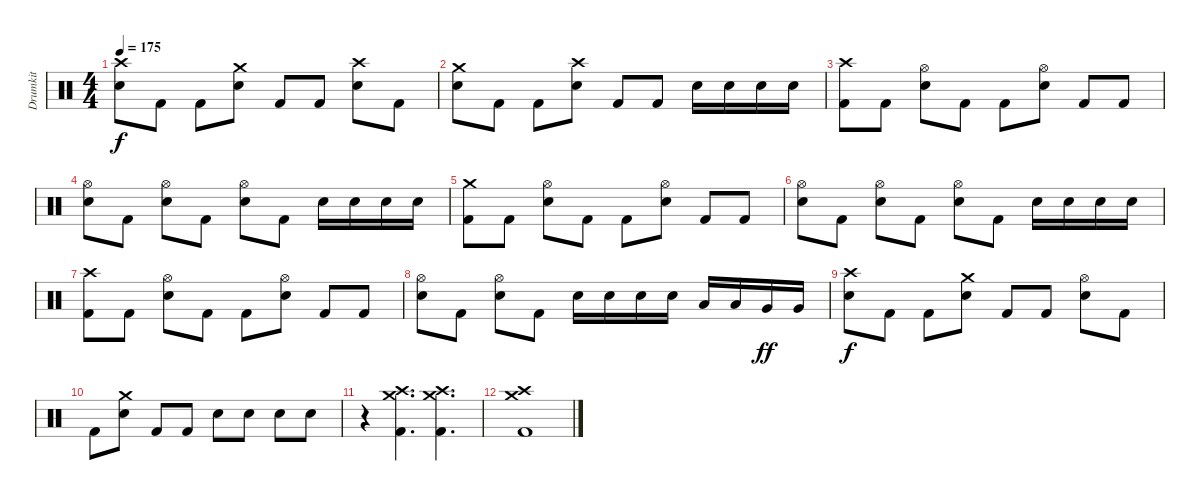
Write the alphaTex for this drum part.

\track ("Drumkit" "Drumkit") {instrument percussion}
\staff {score}
\articulation defaults
\ts (4 4)
\tempo 175
\clef neutral
\ks c
("Crash high (hit)" "Electric Snare (hit)").8{dy f} "Kick (hit) 2".8 "Kick (hit) 2".8 ("Crash medium (hit)" "Electric Snare (hit)").8 "Kick (hit) 2".8 "Kick (hit) 2".8 ("Crash high (hit)" "Electric Snare (hit)").8 "Kick (hit) 2".8 |
("Crash medium (hit)" "Electric Snare (hit)").8 "Kick (hit) 2".8 "Kick (hit) 2".8 ("Crash high (hit)" "Electric Snare (hit)").8 "Kick (hit) 2".8 "Kick (hit) 2".8 "Electric Snare (hit)".16 "Electric Snare (hit)".16 "Electric Snare (hit)".16 "Electric Snare (hit)".16 |
("Crash high (hit)" "Kick (hit) 2").8 "Kick (hit) 2".8 ("Hi-Hat (open)" "Electric Snare (hit)").8 "Kick (hit) 2".8 "Kick (hit) 2".8 ("Hi-Hat (open)" "Electric Snare (hit)").8 "Kick (hit) 2".8 "Kick (hit) 2".8 |
("Hi-Hat (open)" "Electric Snare (hit)").8 "Kick (hit) 2".8 ("Hi-Hat (open)" "Electric Snare (hit)").8 "Kick (hit) 2".8 ("Hi-Hat (open)" "Electric Snare (hit)").8 "Kick (hit) 2".8 "Electric Snare (hit)".16 "Electric Snare (hit)".16 "Electric Snare (hit)".16 "Electric Snare (hit)".16 |
("Crash medium (hit)" "Kick (hit) 2").8 "Kick (hit) 2".8 ("Hi-Hat (open)" "Electric Snare (hit)").8 "Kick (hit) 2".8 "Kick (hit) 2".8 ("Hi-Hat (open)" "Electric Snare (hit)").8 "Kick (hit) 2".8 "Kick (hit) 2".8 |
("Hi-Hat (open)" "Electric Snare (hit)").8 "Kick (hit) 2".8 ("Hi-Hat (open)" "Electric Snare (hit)").8 "Kick (hit) 2".8 ("Hi-Hat (open)" "Electric Snare (hit)").8 "Kick (hit) 2".8 "Electric Snare (hit)".16 "Electric Snare (hit)".16 "Electric Snare (hit)".16 "Electric Snare (hit)".16 |
("Crash high (hit)" "Kick (hit) 2").8 "Kick (hit) 2".8 ("Hi-Hat (open)" "Electric Snare (hit)").8 "Kick (hit) 2".8 "Kick (hit) 2".8 ("Hi-Hat (open)" "Electric Snare (hit)").8 "Kick (hit) 2".8 "Kick (hit) 2".8 |
("Hi-Hat (open)" "Electric Snare (hit)").8 "Kick (hit) 2".8 ("Hi-Hat (open)" "Electric Snare (hit)").8 "Kick (hit) 2".8 "Electric Snare (hit)".16 "Electric Snare (hit)".16 "Electric Snare (hit)".16 "Electric Snare (hit)".16 "Low Tom (hit)".16 "Low Tom (hit)".16 "Very Low Tom (hit)".16{dy ff} "Very Low Tom (hit)".16 |
("Crash high (hit)" "Electric Snare (hit)").8{dy f} "Kick (hit) 2".8 "Kick (hit) 2".8 ("Crash medium (hit)" "Electric Snare (hit)").8 "Kick (hit) 2".8 "Kick (hit) 2".8 ("Hi-Hat (open)" "Electric Snare (hit)").8 "Kick (hit) 2".8 |
"Kick (hit) 2".8 ("Crash medium (hit)" "Electric Snare (hit)").8 "Kick (hit) 2".8 "Kick (hit) 2".8 "Electric Snare (hit)".8 "Electric Snare (hit)".8 "Electric Snare (hit)".8 "Electric Snare (hit)".8 |
r.4 ("Crash high (hit)" "Crash medium (hit)" "Kick (hit) 2").4{d} ("Crash high (hit)" "Crash medium (hit)" "Kick (hit) 2").4{d} |
("Crash high (hit)" "Crash medium (hit)" "Kick (hit) 2").1
